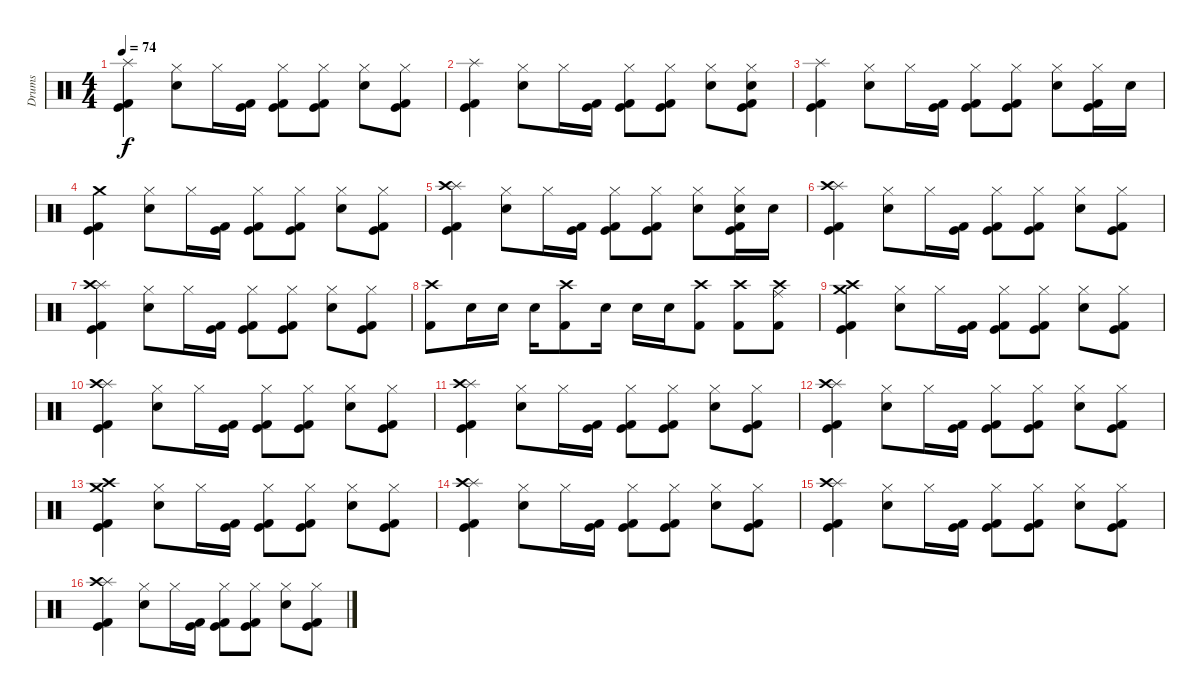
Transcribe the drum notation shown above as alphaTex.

\track ("Drums" "Drums") {instrument percussion}
\staff {score}
\articulation defaults
\ts (4 4)
\tempo 74
\clef neutral
\ks c
("Splash (hit)" "Kick (hit) 2" "Kick (hit)").4{dy f} ("Hi-Hat (closed)" "Electric Snare (hit)").8 "Hi-Hat (closed)".16 ("Kick (hit) 2" "Kick (hit)").16 ("Hi-Hat (closed)" "Kick (hit) 2" "Kick (hit)").8 ("Hi-Hat (closed)" "Kick (hit)" "Kick (hit) 2").8 ("Hi-Hat (closed)" "Electric Snare (hit)").8 ("Hi-Hat (closed)" "Kick (hit) 2" "Kick (hit)").8 |
("Splash (hit)" "Kick (hit) 2" "Kick (hit)").4 ("Hi-Hat (closed)" "Electric Snare (hit)").8 "Hi-Hat (closed)".16 ("Kick (hit) 2" "Kick (hit)").16 ("Hi-Hat (closed)" "Kick (hit) 2" "Kick (hit)").8 ("Hi-Hat (closed)" "Kick (hit)" "Kick (hit) 2").8 ("Hi-Hat (closed)" "Electric Snare (hit)").8 ("Hi-Hat (closed)" "Electric Snare (hit)" "Kick (hit) 2" "Kick (hit)").8 |
("Splash (hit)" "Kick (hit) 2" "Kick (hit)").4 ("Hi-Hat (closed)" "Electric Snare (hit)").8 "Hi-Hat (closed)".16 ("Kick (hit) 2" "Kick (hit)").16 ("Hi-Hat (closed)" "Kick (hit) 2" "Kick (hit)").8 ("Hi-Hat (closed)" "Kick (hit)" "Kick (hit) 2").8 ("Hi-Hat (closed)" "Electric Snare (hit)").8 ("Hi-Hat (closed)" "Kick (hit) 2" "Kick (hit)").16 "Electric Snare (hit)".16 |
("Crash medium (hit)" "Kick (hit) 2" "Kick (hit)").4 ("Hi-Hat (closed)" "Electric Snare (hit)").8 "Hi-Hat (closed)".16 ("Kick (hit) 2" "Kick (hit)").16 ("Hi-Hat (closed)" "Kick (hit) 2" "Kick (hit)").8 ("Hi-Hat (closed)" "Kick (hit)" "Kick (hit) 2").8 ("Hi-Hat (closed)" "Electric Snare (hit)").8 ("Hi-Hat (closed)" "Kick (hit) 2" "Kick (hit)").8 |
("Splash (hit)" "Crash high (hit)" "Kick (hit) 2" "Kick (hit)").4 ("Hi-Hat (closed)" "Electric Snare (hit)").8 "Hi-Hat (closed)".16 ("Kick (hit) 2" "Kick (hit)").16 ("Hi-Hat (closed)" "Kick (hit) 2" "Kick (hit)").8 ("Hi-Hat (closed)" "Kick (hit)" "Kick (hit) 2").8 ("Hi-Hat (closed)" "Electric Snare (hit)").8 ("Hi-Hat (closed)" "Electric Snare (hit)" "Kick (hit) 2" "Kick (hit)").16 "Electric Snare (hit)".16 |
("Splash (hit)" "Crash high (hit)" "Kick (hit) 2" "Kick (hit)").4 ("Hi-Hat (closed)" "Electric Snare (hit)").8 "Hi-Hat (closed)".16 ("Kick (hit) 2" "Kick (hit)").16 ("Hi-Hat (closed)" "Kick (hit) 2" "Kick (hit)").8 ("Hi-Hat (closed)" "Kick (hit)" "Kick (hit) 2").8 ("Hi-Hat (closed)" "Electric Snare (hit)").8 ("Hi-Hat (closed)" "Kick (hit) 2" "Kick (hit)").8 |
("Splash (hit)" "Crash high (hit)" "Kick (hit) 2" "Kick (hit)").4 ("Hi-Hat (closed)" "Electric Snare (hit)").8 "Hi-Hat (closed)".16 ("Kick (hit) 2" "Kick (hit)").16 ("Hi-Hat (closed)" "Kick (hit) 2" "Kick (hit)").8 ("Hi-Hat (closed)" "Kick (hit)" "Kick (hit) 2").8 ("Hi-Hat (closed)" "Electric Snare (hit)").8 ("Hi-Hat (closed)" "Kick (hit) 2" "Kick (hit)").8 |
("Crash high (hit)" "Kick (hit) 2").8 "Snare (hit) 2".16 "Snare (hit) 2".16 "Snare (hit) 2".16 ("Crash high (hit)" "Kick (hit) 2").8 "Snare (hit) 2".16 "Snare (hit) 2".16 "Snare (hit) 2".16 ("Crash high (hit)" "Kick (hit) 2").8 ("Crash high (hit)" "Kick (hit) 2").8 ("Ride (middle)" "Crash high (hit)" "Kick (hit) 2").8 |
("Crash medium (hit)" "Crash high (hit)" "Kick (hit) 2" "Kick (hit)").4 ("Hi-Hat (closed)" "Electric Snare (hit)").8 "Hi-Hat (closed)".16 ("Kick (hit) 2" "Kick (hit)").16 ("Hi-Hat (closed)" "Kick (hit) 2" "Kick (hit)").8 ("Hi-Hat (closed)" "Kick (hit)" "Kick (hit) 2").8 ("Hi-Hat (closed)" "Electric Snare (hit)").8 ("Hi-Hat (closed)" "Kick (hit) 2" "Kick (hit)").8 |
("Splash (hit)" "Crash high (hit)" "Kick (hit) 2" "Kick (hit)").4 ("Hi-Hat (closed)" "Electric Snare (hit)").8 "Hi-Hat (closed)".16 ("Kick (hit) 2" "Kick (hit)").16 ("Hi-Hat (closed)" "Kick (hit) 2" "Kick (hit)").8 ("Hi-Hat (closed)" "Kick (hit)" "Kick (hit) 2").8 ("Hi-Hat (closed)" "Electric Snare (hit)").8 ("Hi-Hat (closed)" "Kick (hit) 2" "Kick (hit)").8 |
("Splash (hit)" "Crash high (hit)" "Kick (hit) 2" "Kick (hit)").4 ("Hi-Hat (closed)" "Electric Snare (hit)").8 "Hi-Hat (closed)".16 ("Kick (hit) 2" "Kick (hit)").16 ("Hi-Hat (closed)" "Kick (hit) 2" "Kick (hit)").8 ("Hi-Hat (closed)" "Kick (hit)" "Kick (hit) 2").8 ("Hi-Hat (closed)" "Electric Snare (hit)").8 ("Hi-Hat (closed)" "Kick (hit) 2" "Kick (hit)").8 |
("Splash (hit)" "Crash high (hit)" "Kick (hit) 2" "Kick (hit)").4 ("Hi-Hat (closed)" "Electric Snare (hit)").8 "Hi-Hat (closed)".16 ("Kick (hit) 2" "Kick (hit)").16 ("Hi-Hat (closed)" "Kick (hit) 2" "Kick (hit)").8 ("Hi-Hat (closed)" "Kick (hit)" "Kick (hit) 2").8 ("Hi-Hat (closed)" "Electric Snare (hit)").8 ("Hi-Hat (closed)" "Kick (hit) 2" "Kick (hit)").8 |
("Crash medium (hit)" "Crash high (hit)" "Kick (hit) 2" "Kick (hit)").4 ("Hi-Hat (closed)" "Electric Snare (hit)").8 "Hi-Hat (closed)".16 ("Kick (hit) 2" "Kick (hit)").16 ("Hi-Hat (closed)" "Kick (hit) 2" "Kick (hit)").8 ("Hi-Hat (closed)" "Kick (hit)" "Kick (hit) 2").8 ("Hi-Hat (closed)" "Electric Snare (hit)").8 ("Hi-Hat (closed)" "Kick (hit) 2" "Kick (hit)").8 |
("Splash (hit)" "Crash high (hit)" "Kick (hit) 2" "Kick (hit)").4 ("Hi-Hat (closed)" "Electric Snare (hit)").8 "Hi-Hat (closed)".16 ("Kick (hit) 2" "Kick (hit)").16 ("Hi-Hat (closed)" "Kick (hit) 2" "Kick (hit)").8 ("Hi-Hat (closed)" "Kick (hit)" "Kick (hit) 2").8 ("Hi-Hat (closed)" "Electric Snare (hit)").8 ("Hi-Hat (closed)" "Kick (hit) 2" "Kick (hit)").8 |
("Splash (hit)" "Crash high (hit)" "Kick (hit) 2" "Kick (hit)").4 ("Hi-Hat (closed)" "Electric Snare (hit)").8 "Hi-Hat (closed)".16 ("Kick (hit) 2" "Kick (hit)").16 ("Hi-Hat (closed)" "Kick (hit) 2" "Kick (hit)").8 ("Hi-Hat (closed)" "Kick (hit)" "Kick (hit) 2").8 ("Hi-Hat (closed)" "Electric Snare (hit)").8 ("Hi-Hat (closed)" "Kick (hit) 2" "Kick (hit)").8 |
("Splash (hit)" "Crash high (hit)" "Kick (hit) 2" "Kick (hit)").4 ("Hi-Hat (closed)" "Electric Snare (hit)").8 "Hi-Hat (closed)".16 ("Kick (hit) 2" "Kick (hit)").16 ("Hi-Hat (closed)" "Kick (hit) 2" "Kick (hit)").8 ("Hi-Hat (closed)" "Kick (hit)" "Kick (hit) 2").8 ("Hi-Hat (closed)" "Electric Snare (hit)").8 ("Hi-Hat (closed)" "Kick (hit) 2" "Kick (hit)").8
